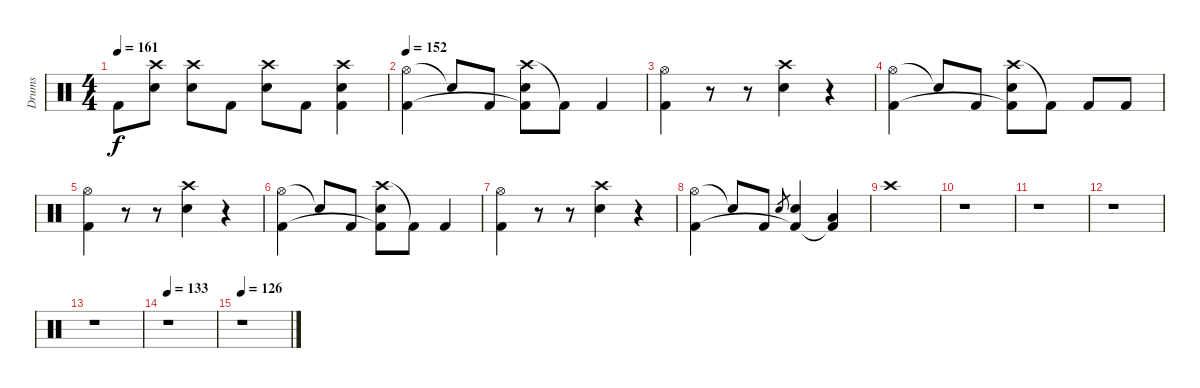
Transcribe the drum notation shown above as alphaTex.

\track ("Drums" "Drums") {instrument percussion}
\staff {score}
\articulation defaults
\ts (4 4)
\tempo 161
\clef neutral
\ks c "Kick (hit) 2".8{dy f}
("Electric Snare (hit)" "Crash high (hit)").8 ("Electric Snare (hit)" "Crash high (hit)").8 "Kick (hit) 2".8 ("Electric Snare (hit)" "Crash high (hit)").8 "Kick (hit) 2".8 ("Electric Snare (hit)" "Crash high (hit)" "Kick (hit) 2").4 |
\tempo 152
("Hi-Hat (open)" "Kick (hit) 2").4 "Snare (hit)"{t}.8 "Kick (hit) 2".8 ("Crash high (hit)" "Kick (hit) 2"{t} "Electric Snare (hit)").8 "Kick (hit) 2"{t}.8 "Kick (hit) 2".4 |
("Hi-Hat (open)" "Kick (hit) 2").4 r.8 r.8 ("Crash high (hit)" "Electric Snare (hit)").4 r.4 |
("Hi-Hat (open)" "Kick (hit) 2").4 "Snare (hit)"{t}.8 "Kick (hit) 2".8 ("Crash high (hit)" "Kick (hit) 2"{t} "Electric Snare (hit)").8 "Kick (hit) 2"{t}.8 "Kick (hit) 2".8 "Kick (hit) 2".8 |
("Hi-Hat (open)" "Kick (hit) 2").4 r.8 r.8 ("Crash high (hit)" "Electric Snare (hit)").4 r.4 |
("Hi-Hat (open)" "Kick (hit) 2").4 "Snare (hit)"{t}.8 "Kick (hit) 2".8 ("Crash high (hit)" "Kick (hit) 2"{t} "Electric Snare (hit)").8 "Kick (hit) 2"{t}.8 "Kick (hit) 2".4 |
("Hi-Hat (open)" "Kick (hit) 2").4 r.8 r.8 ("Crash high (hit)" "Electric Snare (hit)").4 r.4 |
("Hi-Hat (open)" "Kick (hit) 2").4 "Snare (hit)"{t}.8 "Kick (hit) 2".8 "Electric Snare (hit)".8{gr} ("Electric Snare (hit)" "Kick (hit) 2"{t}).4 ("Low Floor Tom (hit)" "Kick (hit) 2"{t}).4 |
"Crash high (hit)".1 |
r.1 |
r.1 |
r.1 |
r.1 |
\tempo 133
r.1 |
\tempo 126
r.1
